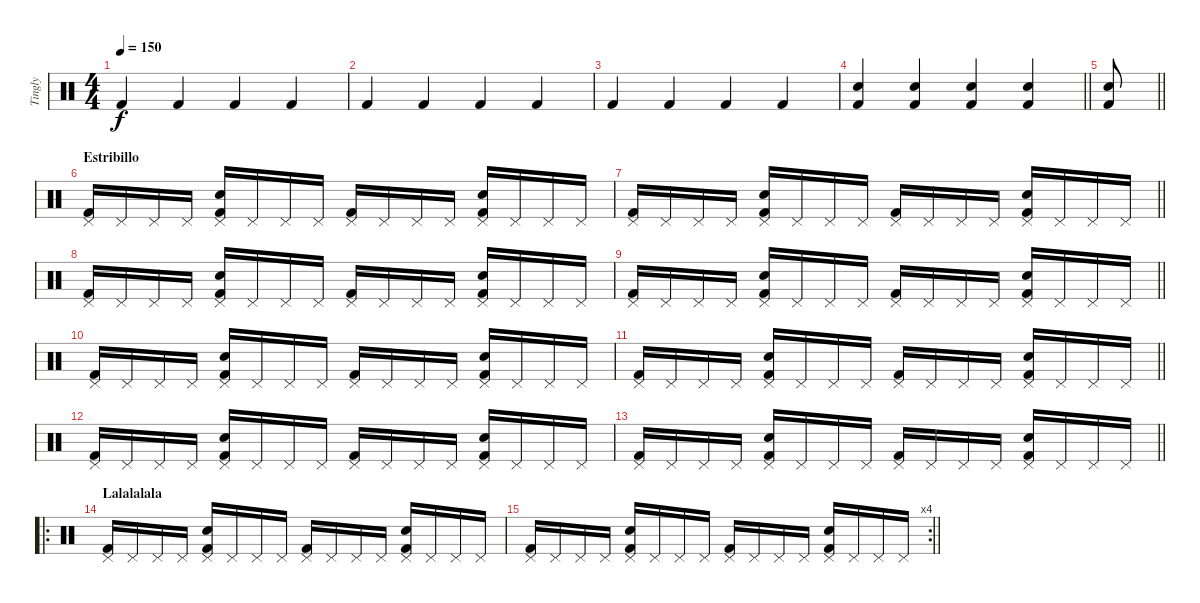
\track ("Tingly" "Tingly") {instrument percussion}
\staff {score}
\articulation defaults
\ts (4 4)
\tempo 150
\clef neutral
\ks c "Kick (hit) 2".4{dy f} "Kick (hit) 2".4 "Kick (hit) 2".4 "Kick (hit) 2".4
|
"Kick (hit) 2".4 "Kick (hit) 2".4 "Kick (hit) 2".4 "Kick (hit) 2".4 |
"Kick (hit) 2".4 "Kick (hit) 2".4 "Kick (hit) 2".4 "Kick (hit) 2".4 |
\barLineRight lightlight
("Electric Snare (hit)" "Kick (hit) 2").4 ("Electric Snare (hit)" "Kick (hit) 2").4 ("Electric Snare (hit)" "Kick (hit) 2").4 ("Electric Snare (hit)" "Kick (hit) 2").4 |
\barLineRight lightlight
("Electric Snare (hit)" "Kick (hit) 2").8 |
\section ("" "Estribillo")
("Pedal Hi-Hat (hit)" "Kick (hit) 2").16 "Pedal Hi-Hat (hit)".16 "Pedal Hi-Hat (hit)".16 "Pedal Hi-Hat (hit)".16 ("Electric Snare (hit)" "Pedal Hi-Hat (hit)" "Kick (hit) 2").16 "Pedal Hi-Hat (hit)".16 "Pedal Hi-Hat (hit)".16 "Pedal Hi-Hat (hit)".16 ("Pedal Hi-Hat (hit)" "Kick (hit) 2").16 "Pedal Hi-Hat (hit)".16 "Pedal Hi-Hat (hit)".16 "Pedal Hi-Hat (hit)".16 ("Electric Snare (hit)" "Pedal Hi-Hat (hit)" "Kick (hit) 2").16 "Pedal Hi-Hat (hit)".16 "Pedal Hi-Hat (hit)".16 "Pedal Hi-Hat (hit)".16 |
\barLineRight lightlight
("Pedal Hi-Hat (hit)" "Kick (hit) 2").16 "Pedal Hi-Hat (hit)".16 "Pedal Hi-Hat (hit)".16 "Pedal Hi-Hat (hit)".16 ("Electric Snare (hit)" "Pedal Hi-Hat (hit)" "Kick (hit) 2").16 "Pedal Hi-Hat (hit)".16 "Pedal Hi-Hat (hit)".16 "Pedal Hi-Hat (hit)".16 ("Pedal Hi-Hat (hit)" "Kick (hit) 2").16 "Pedal Hi-Hat (hit)".16 "Pedal Hi-Hat (hit)".16 "Pedal Hi-Hat (hit)".16 ("Electric Snare (hit)" "Pedal Hi-Hat (hit)" "Kick (hit) 2").16 "Pedal Hi-Hat (hit)".16 "Pedal Hi-Hat (hit)".16 "Pedal Hi-Hat (hit)".16 |
("Pedal Hi-Hat (hit)" "Kick (hit) 2").16 "Pedal Hi-Hat (hit)".16 "Pedal Hi-Hat (hit)".16 "Pedal Hi-Hat (hit)".16 ("Electric Snare (hit)" "Pedal Hi-Hat (hit)" "Kick (hit) 2").16 "Pedal Hi-Hat (hit)".16 "Pedal Hi-Hat (hit)".16 "Pedal Hi-Hat (hit)".16 ("Pedal Hi-Hat (hit)" "Kick (hit) 2").16 "Pedal Hi-Hat (hit)".16 "Pedal Hi-Hat (hit)".16 "Pedal Hi-Hat (hit)".16 ("Electric Snare (hit)" "Pedal Hi-Hat (hit)" "Kick (hit) 2").16 "Pedal Hi-Hat (hit)".16 "Pedal Hi-Hat (hit)".16 "Pedal Hi-Hat (hit)".16 |
\barLineRight lightlight
("Pedal Hi-Hat (hit)" "Kick (hit) 2").16 "Pedal Hi-Hat (hit)".16 "Pedal Hi-Hat (hit)".16 "Pedal Hi-Hat (hit)".16 ("Electric Snare (hit)" "Pedal Hi-Hat (hit)" "Kick (hit) 2").16 "Pedal Hi-Hat (hit)".16 "Pedal Hi-Hat (hit)".16 "Pedal Hi-Hat (hit)".16 ("Pedal Hi-Hat (hit)" "Kick (hit) 2").16 "Pedal Hi-Hat (hit)".16 "Pedal Hi-Hat (hit)".16 "Pedal Hi-Hat (hit)".16 ("Electric Snare (hit)" "Pedal Hi-Hat (hit)" "Kick (hit) 2").16 "Pedal Hi-Hat (hit)".16 "Pedal Hi-Hat (hit)".16 "Pedal Hi-Hat (hit)".16 |
("Pedal Hi-Hat (hit)" "Kick (hit) 2").16 "Pedal Hi-Hat (hit)".16 "Pedal Hi-Hat (hit)".16 "Pedal Hi-Hat (hit)".16 ("Electric Snare (hit)" "Pedal Hi-Hat (hit)" "Kick (hit) 2").16 "Pedal Hi-Hat (hit)".16 "Pedal Hi-Hat (hit)".16 "Pedal Hi-Hat (hit)".16 ("Pedal Hi-Hat (hit)" "Kick (hit) 2").16 "Pedal Hi-Hat (hit)".16 "Pedal Hi-Hat (hit)".16 "Pedal Hi-Hat (hit)".16 ("Electric Snare (hit)" "Pedal Hi-Hat (hit)" "Kick (hit) 2").16 "Pedal Hi-Hat (hit)".16 "Pedal Hi-Hat (hit)".16 "Pedal Hi-Hat (hit)".16 |
\barLineRight lightlight
("Pedal Hi-Hat (hit)" "Kick (hit) 2").16 "Pedal Hi-Hat (hit)".16 "Pedal Hi-Hat (hit)".16 "Pedal Hi-Hat (hit)".16 ("Electric Snare (hit)" "Pedal Hi-Hat (hit)" "Kick (hit) 2").16 "Pedal Hi-Hat (hit)".16 "Pedal Hi-Hat (hit)".16 "Pedal Hi-Hat (hit)".16 ("Pedal Hi-Hat (hit)" "Kick (hit) 2").16 "Pedal Hi-Hat (hit)".16 "Pedal Hi-Hat (hit)".16 "Pedal Hi-Hat (hit)".16 ("Electric Snare (hit)" "Pedal Hi-Hat (hit)" "Kick (hit) 2").16 "Pedal Hi-Hat (hit)".16 "Pedal Hi-Hat (hit)".16 "Pedal Hi-Hat (hit)".16 |
("Pedal Hi-Hat (hit)" "Kick (hit) 2").16 "Pedal Hi-Hat (hit)".16 "Pedal Hi-Hat (hit)".16 "Pedal Hi-Hat (hit)".16 ("Electric Snare (hit)" "Pedal Hi-Hat (hit)" "Kick (hit) 2").16 "Pedal Hi-Hat (hit)".16 "Pedal Hi-Hat (hit)".16 "Pedal Hi-Hat (hit)".16 ("Pedal Hi-Hat (hit)" "Kick (hit) 2").16 "Pedal Hi-Hat (hit)".16 "Pedal Hi-Hat (hit)".16 "Pedal Hi-Hat (hit)".16 ("Electric Snare (hit)" "Pedal Hi-Hat (hit)" "Kick (hit) 2").16 "Pedal Hi-Hat (hit)".16 "Pedal Hi-Hat (hit)".16 "Pedal Hi-Hat (hit)".16 |
\barLineRight lightlight
("Pedal Hi-Hat (hit)" "Kick (hit) 2").16 "Pedal Hi-Hat (hit)".16 "Pedal Hi-Hat (hit)".16 "Pedal Hi-Hat (hit)".16 ("Electric Snare (hit)" "Pedal Hi-Hat (hit)" "Kick (hit) 2").16 "Pedal Hi-Hat (hit)".16 "Pedal Hi-Hat (hit)".16 "Pedal Hi-Hat (hit)".16 ("Pedal Hi-Hat (hit)" "Kick (hit) 2").16 "Pedal Hi-Hat (hit)".16 "Pedal Hi-Hat (hit)".16 "Pedal Hi-Hat (hit)".16 ("Electric Snare (hit)" "Pedal Hi-Hat (hit)" "Kick (hit) 2").16 "Pedal Hi-Hat (hit)".16 "Pedal Hi-Hat (hit)".16 "Pedal Hi-Hat (hit)".16 |
\ro
\section ("" "Lalalalala")
("Pedal Hi-Hat (hit)" "Kick (hit) 2").16 "Pedal Hi-Hat (hit)".16 "Pedal Hi-Hat (hit)".16 "Pedal Hi-Hat (hit)".16 ("Electric Snare (hit)" "Pedal Hi-Hat (hit)" "Kick (hit) 2").16 "Pedal Hi-Hat (hit)".16 "Pedal Hi-Hat (hit)".16 "Pedal Hi-Hat (hit)".16 ("Pedal Hi-Hat (hit)" "Kick (hit) 2").16 "Pedal Hi-Hat (hit)".16 "Pedal Hi-Hat (hit)".16 "Pedal Hi-Hat (hit)".16 ("Electric Snare (hit)" "Pedal Hi-Hat (hit)" "Kick (hit) 2").16 "Pedal Hi-Hat (hit)".16 "Pedal Hi-Hat (hit)".16 "Pedal Hi-Hat (hit)".16 |
\rc 4
\barLineRight lightlight
("Pedal Hi-Hat (hit)" "Kick (hit) 2").16 "Pedal Hi-Hat (hit)".16 "Pedal Hi-Hat (hit)".16 "Pedal Hi-Hat (hit)".16 ("Electric Snare (hit)" "Pedal Hi-Hat (hit)" "Kick (hit) 2").16 "Pedal Hi-Hat (hit)".16 "Pedal Hi-Hat (hit)".16 "Pedal Hi-Hat (hit)".16 ("Pedal Hi-Hat (hit)" "Kick (hit) 2").16 "Pedal Hi-Hat (hit)".16 "Pedal Hi-Hat (hit)".16 "Pedal Hi-Hat (hit)".16 ("Electric Snare (hit)" "Pedal Hi-Hat (hit)" "Kick (hit) 2").16 "Pedal Hi-Hat (hit)".16 "Pedal Hi-Hat (hit)".16 "Pedal Hi-Hat (hit)".16
